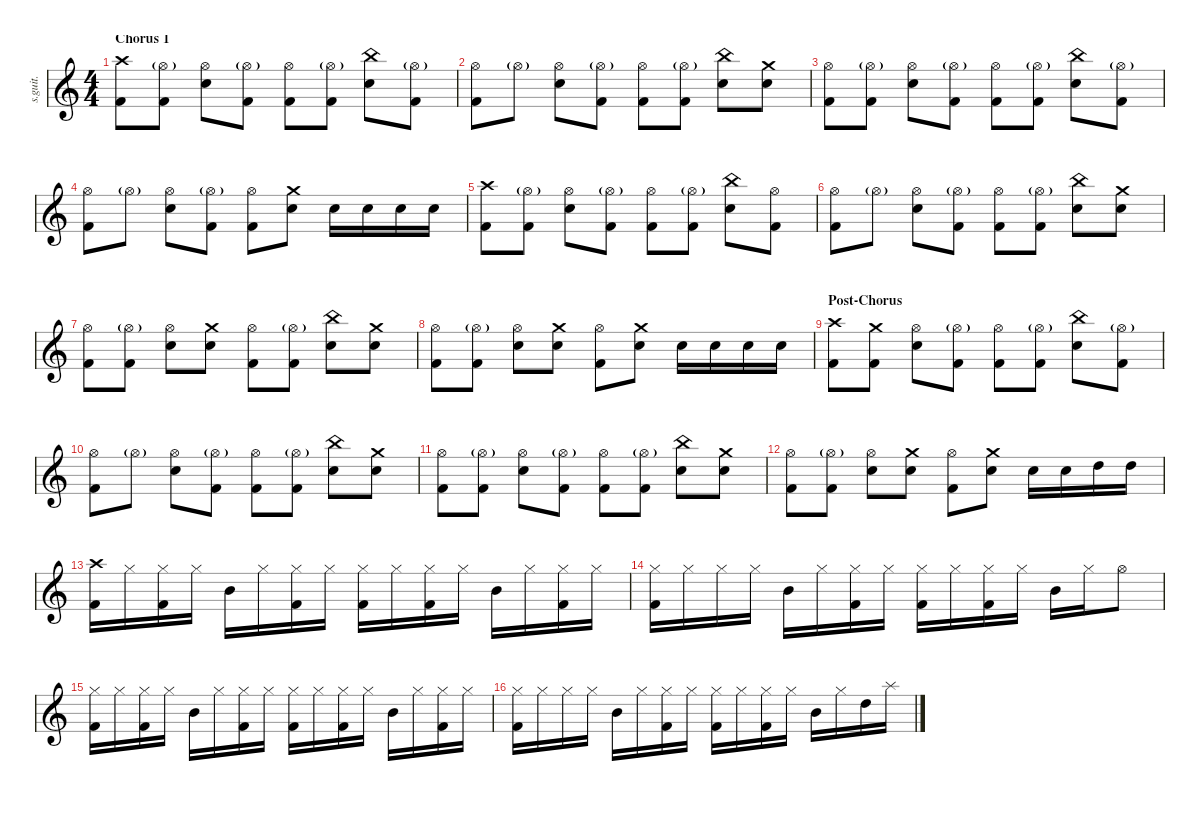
\defaultSystemsLayout 4
\hideDynamics
\bracketExtendMode nobrackets
\track ("Feargal Lawler (Drums)" "s.guit.") {instrument percussion}
\staff {score}
\articulation defaults
\ts (4 4)
\section ("" "Chorus 1")
\tempo (82 hide)
\clef g2
\ks c
("Crash high (hit)" "Kick (hit) 2").8{lyrics (0 "") lyrics (1 "") lyrics (2 "") lyrics (3 "") lyrics (4 "") dy ff} ("Hi-Hat (open)"{g} "Kick (hit) 2").8{lyrics (0 "") lyrics (1 "") lyrics (2 "") lyrics (3 "") lyrics (4 "")} ("Hi-Hat (open)" "Snare (hit) 2").8{lyrics (0 "") lyrics (1 "") lyrics (2 "") lyrics (3 "") lyrics (4 "")} ("Hi-Hat (open)"{g} "Kick (hit) 2").8{lyrics (0 "") lyrics (1 "") lyrics (2 "") lyrics (3 "") lyrics (4 "")} ("Hi-Hat (open)" "Kick (hit) 2").8{lyrics (0 "") lyrics (1 "") lyrics (2 "") lyrics (3 "") lyrics (4 "")} ("Hi-Hat (open)"{g} "Kick (hit) 2").8{lyrics (0 "") lyrics (1 "") lyrics (2 "") lyrics (3 "") lyrics (4 "")} ("Snare (hit) 2" "China (hit)").8{lyrics (0 "") lyrics (1 "") lyrics (2 "") lyrics (3 "") lyrics (4 "")} ("Hi-Hat (open)"{g} "Kick (hit) 2").8{lyrics (0 "") lyrics (1 "") lyrics (2 "") lyrics (3 "") lyrics (4 "")} |
("Hi-Hat (open)" "Kick (hit) 2").8{lyrics (0 "") lyrics (1 "") lyrics (2 "") lyrics (3 "") lyrics (4 "")} "Hi-Hat (open)"{g}.8{lyrics (0 "") lyrics (1 "") lyrics (2 "") lyrics (3 "") lyrics (4 "")} ("Hi-Hat (open)" "Snare (hit) 2").8{lyrics (0 "") lyrics (1 "") lyrics (2 "") lyrics (3 "") lyrics (4 "")} ("Hi-Hat (open)"{g} "Kick (hit) 2").8{lyrics (0 "") lyrics (1 "") lyrics (2 "") lyrics (3 "") lyrics (4 "")} ("Hi-Hat (open)" "Kick (hit) 2").8{lyrics (0 "") lyrics (1 "") lyrics (2 "") lyrics (3 "") lyrics (4 "")} ("Hi-Hat (open)"{g} "Kick (hit) 2").8{lyrics (0 "") lyrics (1 "") lyrics (2 "") lyrics (3 "") lyrics (4 "")} ("China (hit)" "Snare (hit) 2").8{lyrics (0 "") lyrics (1 "") lyrics (2 "") lyrics (3 "") lyrics (4 "")} ("Crash medium (hit)" "Snare (hit) 2").8{lyrics (0 "") lyrics (1 "") lyrics (2 "") lyrics (3 "") lyrics (4 "")} |
("Hi-Hat (open)" "Kick (hit) 2").8{lyrics (0 "") lyrics (1 "") lyrics (2 "") lyrics (3 "") lyrics (4 "")} ("Hi-Hat (open)"{g} "Kick (hit) 2").8{lyrics (0 "") lyrics (1 "") lyrics (2 "") lyrics (3 "") lyrics (4 "")} ("Hi-Hat (open)" "Snare (hit) 2").8{lyrics (0 "") lyrics (1 "") lyrics (2 "") lyrics (3 "") lyrics (4 "")} ("Hi-Hat (open)"{g} "Kick (hit) 2").8{lyrics (0 "") lyrics (1 "") lyrics (2 "") lyrics (3 "") lyrics (4 "")} ("Hi-Hat (open)" "Kick (hit) 2").8{lyrics (0 "") lyrics (1 "") lyrics (2 "") lyrics (3 "") lyrics (4 "")} ("Hi-Hat (open)"{g} "Kick (hit) 2").8{lyrics (0 "") lyrics (1 "") lyrics (2 "") lyrics (3 "") lyrics (4 "")} ("China (hit)" "Snare (hit) 2").8{lyrics (0 "") lyrics (1 "") lyrics (2 "") lyrics (3 "") lyrics (4 "")} ("Hi-Hat (open)"{g} "Kick (hit) 2").8{lyrics (0 "") lyrics (1 "") lyrics (2 "") lyrics (3 "") lyrics (4 "")} |
("Hi-Hat (open)" "Kick (hit) 2").8{lyrics (0 "") lyrics (1 "") lyrics (2 "") lyrics (3 "") lyrics (4 "")} "Hi-Hat (open)"{g}.8{lyrics (0 "") lyrics (1 "") lyrics (2 "") lyrics (3 "") lyrics (4 "")} ("Hi-Hat (open)" "Snare (hit) 2").8{lyrics (0 "") lyrics (1 "") lyrics (2 "") lyrics (3 "") lyrics (4 "")} ("Hi-Hat (open)"{g} "Kick (hit) 2").8{lyrics (0 "") lyrics (1 "") lyrics (2 "") lyrics (3 "") lyrics (4 "")} ("Hi-Hat (open)" "Kick (hit) 2").8{lyrics (0 "") lyrics (1 "") lyrics (2 "") lyrics (3 "") lyrics (4 "")} ("Crash medium (hit)" "Snare (hit) 2").8{lyrics (0 "") lyrics (1 "") lyrics (2 "") lyrics (3 "") lyrics (4 "")} "Snare (hit) 2".16{lyrics (0 "") lyrics (1 "") lyrics (2 "") lyrics (3 "") lyrics (4 "")} "Snare (hit) 2".16{lyrics (0 "") lyrics (1 "") lyrics (2 "") lyrics (3 "") lyrics (4 "")} "Snare (hit) 2".16{lyrics (0 "") lyrics (1 "") lyrics (2 "") lyrics (3 "") lyrics (4 "")} "Snare (hit) 2".16{lyrics (0 "") lyrics (1 "") lyrics (2 "") lyrics (3 "") lyrics (4 "")} |
("Crash high (hit)" "Kick (hit) 2").8{lyrics (0 "") lyrics (1 "") lyrics (2 "") lyrics (3 "") lyrics (4 "")} ("Hi-Hat (open)"{g} "Kick (hit) 2").8{lyrics (0 "") lyrics (1 "") lyrics (2 "") lyrics (3 "") lyrics (4 "")} ("Hi-Hat (open)" "Snare (hit) 2").8{lyrics (0 "") lyrics (1 "") lyrics (2 "") lyrics (3 "") lyrics (4 "")} ("Hi-Hat (open)"{g} "Kick (hit) 2").8{lyrics (0 "") lyrics (1 "") lyrics (2 "") lyrics (3 "") lyrics (4 "")} ("Hi-Hat (open)" "Kick (hit) 2").8{lyrics (0 "") lyrics (1 "") lyrics (2 "") lyrics (3 "") lyrics (4 "")} ("Hi-Hat (open)"{g} "Kick (hit) 2").8{lyrics (0 "") lyrics (1 "") lyrics (2 "") lyrics (3 "") lyrics (4 "")} ("China (hit)" "Snare (hit) 2").8{lyrics (0 "") lyrics (1 "") lyrics (2 "") lyrics (3 "") lyrics (4 "")} ("Hi-Hat (open)" "Kick (hit) 2").8{lyrics (0 "") lyrics (1 "") lyrics (2 "") lyrics (3 "") lyrics (4 "")} |
("Hi-Hat (open)" "Kick (hit) 2").8{lyrics (0 "") lyrics (1 "") lyrics (2 "") lyrics (3 "") lyrics (4 "")} "Hi-Hat (open)"{g}.8{lyrics (0 "") lyrics (1 "") lyrics (2 "") lyrics (3 "") lyrics (4 "")} ("Hi-Hat (open)" "Snare (hit) 2").8{lyrics (0 "") lyrics (1 "") lyrics (2 "") lyrics (3 "") lyrics (4 "")} ("Hi-Hat (open)"{g} "Kick (hit) 2").8{lyrics (0 "") lyrics (1 "") lyrics (2 "") lyrics (3 "") lyrics (4 "")} ("Hi-Hat (open)" "Kick (hit) 2").8{lyrics (0 "") lyrics (1 "") lyrics (2 "") lyrics (3 "") lyrics (4 "")} ("Hi-Hat (open)"{g} "Kick (hit) 2").8{lyrics (0 "") lyrics (1 "") lyrics (2 "") lyrics (3 "") lyrics (4 "")} ("China (hit)" "Snare (hit) 2").8{lyrics (0 "") lyrics (1 "") lyrics (2 "") lyrics (3 "") lyrics (4 "")} ("Crash medium (hit)" "Snare (hit) 2").8{lyrics (0 "") lyrics (1 "") lyrics (2 "") lyrics (3 "") lyrics (4 "")} |
("Hi-Hat (open)" "Kick (hit) 2").8{lyrics (0 "") lyrics (1 "") lyrics (2 "") lyrics (3 "") lyrics (4 "")} ("Hi-Hat (open)"{g} "Kick (hit) 2").8{lyrics (0 "") lyrics (1 "") lyrics (2 "") lyrics (3 "") lyrics (4 "")} ("Hi-Hat (open)" "Snare (hit) 2").8{lyrics (0 "") lyrics (1 "") lyrics (2 "") lyrics (3 "") lyrics (4 "")} ("Crash medium (hit)" "Snare (hit) 2").8{lyrics (0 "") lyrics (1 "") lyrics (2 "") lyrics (3 "") lyrics (4 "")} ("Hi-Hat (open)" "Kick (hit) 2").8{lyrics (0 "") lyrics (1 "") lyrics (2 "") lyrics (3 "") lyrics (4 "")} ("Hi-Hat (open)"{g} "Kick (hit) 2").8{lyrics (0 "") lyrics (1 "") lyrics (2 "") lyrics (3 "") lyrics (4 "")} ("China (hit)" "Snare (hit) 2").8{lyrics (0 "") lyrics (1 "") lyrics (2 "") lyrics (3 "") lyrics (4 "")} ("Crash medium (hit)" "Snare (hit) 2").8{lyrics (0 "") lyrics (1 "") lyrics (2 "") lyrics (3 "") lyrics (4 "")} |
("Hi-Hat (open)" "Kick (hit) 2").8{lyrics (0 "") lyrics (1 "") lyrics (2 "") lyrics (3 "") lyrics (4 "")} ("Hi-Hat (open)"{g} "Kick (hit) 2").8{lyrics (0 "") lyrics (1 "") lyrics (2 "") lyrics (3 "") lyrics (4 "")} ("Hi-Hat (open)" "Snare (hit) 2").8{lyrics (0 "") lyrics (1 "") lyrics (2 "") lyrics (3 "") lyrics (4 "")} ("Crash medium (hit)" "Snare (hit) 2").8{lyrics (0 "") lyrics (1 "") lyrics (2 "") lyrics (3 "") lyrics (4 "")} ("Hi-Hat (open)" "Kick (hit) 2").8{lyrics (0 "") lyrics (1 "") lyrics (2 "") lyrics (3 "") lyrics (4 "")} ("Crash medium (hit)" "Snare (hit) 2").8{lyrics (0 "") lyrics (1 "") lyrics (2 "") lyrics (3 "") lyrics (4 "")} "Snare (hit) 2".16{lyrics (0 "") lyrics (1 "") lyrics (2 "") lyrics (3 "") lyrics (4 "")} "Snare (hit) 2".16{lyrics (0 "") lyrics (1 "") lyrics (2 "") lyrics (3 "") lyrics (4 "")} "Snare (hit) 2".16{lyrics (0 "") lyrics (1 "") lyrics (2 "") lyrics (3 "") lyrics (4 "")} "Snare (hit) 2".16{lyrics (0 "") lyrics (1 "") lyrics (2 "") lyrics (3 "") lyrics (4 "")} |
\section ("" "Post-Chorus")
("Crash high (hit)" "Kick (hit) 2").8{lyrics (0 "") lyrics (1 "") lyrics (2 "") lyrics (3 "") lyrics (4 "")} ("Kick (hit) 2" "Crash medium (hit)").8{lyrics (0 "") lyrics (1 "") lyrics (2 "") lyrics (3 "") lyrics (4 "")} ("Hi-Hat (open)" "Snare (hit) 2").8{lyrics (0 "") lyrics (1 "") lyrics (2 "") lyrics (3 "") lyrics (4 "")} ("Hi-Hat (open)"{g} "Kick (hit) 2").8{lyrics (0 "") lyrics (1 "") lyrics (2 "") lyrics (3 "") lyrics (4 "")} ("Hi-Hat (open)" "Kick (hit) 2").8{lyrics (0 "") lyrics (1 "") lyrics (2 "") lyrics (3 "") lyrics (4 "")} ("Hi-Hat (open)"{g} "Kick (hit) 2").8{lyrics (0 "") lyrics (1 "") lyrics (2 "") lyrics (3 "") lyrics (4 "")} ("China (hit)" "Snare (hit) 2").8{lyrics (0 "") lyrics (1 "") lyrics (2 "") lyrics (3 "") lyrics (4 "")} ("Hi-Hat (open)"{g} "Kick (hit) 2").8{lyrics (0 "") lyrics (1 "") lyrics (2 "") lyrics (3 "") lyrics (4 "")} |
("Hi-Hat (open)" "Kick (hit) 2").8{lyrics (0 "") lyrics (1 "") lyrics (2 "") lyrics (3 "") lyrics (4 "")} "Hi-Hat (open)"{g}.8{lyrics (0 "") lyrics (1 "") lyrics (2 "") lyrics (3 "") lyrics (4 "")} ("Hi-Hat (open)" "Snare (hit) 2").8{lyrics (0 "") lyrics (1 "") lyrics (2 "") lyrics (3 "") lyrics (4 "")} ("Hi-Hat (open)"{g} "Kick (hit) 2").8{lyrics (0 "") lyrics (1 "") lyrics (2 "") lyrics (3 "") lyrics (4 "")} ("Hi-Hat (open)" "Kick (hit) 2").8{lyrics (0 "") lyrics (1 "") lyrics (2 "") lyrics (3 "") lyrics (4 "")} ("Hi-Hat (open)"{g} "Kick (hit) 2").8{lyrics (0 "") lyrics (1 "") lyrics (2 "") lyrics (3 "") lyrics (4 "")} ("China (hit)" "Snare (hit) 2").8{lyrics (0 "") lyrics (1 "") lyrics (2 "") lyrics (3 "") lyrics (4 "")} ("Crash medium (hit)" "Snare (hit) 2").8{lyrics (0 "") lyrics (1 "") lyrics (2 "") lyrics (3 "") lyrics (4 "")} |
("Hi-Hat (open)" "Kick (hit) 2").8{lyrics (0 "") lyrics (1 "") lyrics (2 "") lyrics (3 "") lyrics (4 "")} ("Hi-Hat (open)"{g} "Kick (hit) 2").8{lyrics (0 "") lyrics (1 "") lyrics (2 "") lyrics (3 "") lyrics (4 "")} ("Hi-Hat (open)" "Snare (hit) 2").8{lyrics (0 "") lyrics (1 "") lyrics (2 "") lyrics (3 "") lyrics (4 "")} ("Hi-Hat (open)"{g} "Kick (hit) 2").8{lyrics (0 "") lyrics (1 "") lyrics (2 "") lyrics (3 "") lyrics (4 "")} ("Hi-Hat (open)" "Kick (hit) 2").8{lyrics (0 "") lyrics (1 "") lyrics (2 "") lyrics (3 "") lyrics (4 "")} ("Hi-Hat (open)"{g} "Kick (hit) 2").8{lyrics (0 "") lyrics (1 "") lyrics (2 "") lyrics (3 "") lyrics (4 "")} ("China (hit)" "Snare (hit) 2").8{lyrics (0 "") lyrics (1 "") lyrics (2 "") lyrics (3 "") lyrics (4 "")} ("Crash medium (hit)" "Snare (hit) 2").8{lyrics (0 "") lyrics (1 "") lyrics (2 "") lyrics (3 "") lyrics (4 "")} |
("Hi-Hat (open)" "Kick (hit) 2").8{lyrics (0 "") lyrics (1 "") lyrics (2 "") lyrics (3 "") lyrics (4 "")} ("Hi-Hat (open)"{g} "Kick (hit) 2").8{lyrics (0 "") lyrics (1 "") lyrics (2 "") lyrics (3 "") lyrics (4 "")} ("Hi-Hat (open)" "Snare (hit) 2").8{lyrics (0 "") lyrics (1 "") lyrics (2 "") lyrics (3 "") lyrics (4 "")} ("Crash medium (hit)" "Snare (hit) 2").8{lyrics (0 "") lyrics (1 "") lyrics (2 "") lyrics (3 "") lyrics (4 "")} ("Hi-Hat (open)" "Kick (hit) 2").8{lyrics (0 "") lyrics (1 "") lyrics (2 "") lyrics (3 "") lyrics (4 "")} ("Crash medium (hit)" "Snare (hit) 2").8{lyrics (0 "") lyrics (1 "") lyrics (2 "") lyrics (3 "") lyrics (4 "")} "Snare (hit) 2".16{lyrics (0 "") lyrics (1 "") lyrics (2 "") lyrics (3 "") lyrics (4 "")} "Snare (hit) 2".16{lyrics (0 "") lyrics (1 "") lyrics (2 "") lyrics (3 "") lyrics (4 "")} "High Tom (hit)".16{lyrics (0 "") lyrics (1 "") lyrics (2 "") lyrics (3 "") lyrics (4 "")} "High Tom (hit)".16{lyrics (0 "") lyrics (1 "") lyrics (2 "") lyrics (3 "") lyrics (4 "")} |
("Crash high (hit)" "Kick (hit) 2").16{lyrics (0 "") lyrics (1 "") lyrics (2 "") lyrics (3 "") lyrics (4 "")} "Hi-Hat (closed)".16{lyrics (0 "") lyrics (1 "") lyrics (2 "") lyrics (3 "") lyrics (4 "")} ("Hi-Hat (closed)" "Kick (hit) 2").16{lyrics (0 "") lyrics (1 "") lyrics (2 "") lyrics (3 "") lyrics (4 "")} "Hi-Hat (closed)".16{lyrics (0 "") lyrics (1 "") lyrics (2 "") lyrics (3 "") lyrics (4 "")} "Mid Tom (hit)".16{lyrics (0 "") lyrics (1 "") lyrics (2 "") lyrics (3 "") lyrics (4 "")} "Hi-Hat (closed)".16{lyrics (0 "") lyrics (1 "") lyrics (2 "") lyrics (3 "") lyrics (4 "")} ("Kick (hit) 2" "Hi-Hat (closed)").16{lyrics (0 "") lyrics (1 "") lyrics (2 "") lyrics (3 "") lyrics (4 "")} "Hi-Hat (closed)".16{lyrics (0 "") lyrics (1 "") lyrics (2 "") lyrics (3 "") lyrics (4 "")} ("Kick (hit) 2" "Hi-Hat (closed)").16{lyrics (0 "") lyrics (1 "") lyrics (2 "") lyrics (3 "") lyrics (4 "")} "Hi-Hat (closed)".16{lyrics (0 "") lyrics (1 "") lyrics (2 "") lyrics (3 "") lyrics (4 "")} ("Kick (hit) 2" "Hi-Hat (closed)").16{lyrics (0 "") lyrics (1 "") lyrics (2 "") lyrics (3 "") lyrics (4 "")} "Hi-Hat (closed)".16{lyrics (0 "") lyrics (1 "") lyrics (2 "") lyrics (3 "") lyrics (4 "")} "Mid Tom (hit)".16{lyrics (0 "") lyrics (1 "") lyrics (2 "") lyrics (3 "") lyrics (4 "")} "Hi-Hat (closed)".16{lyrics (0 "") lyrics (1 "") lyrics (2 "") lyrics (3 "") lyrics (4 "")} ("Hi-Hat (closed)" "Kick (hit) 2").16{lyrics (0 "") lyrics (1 "") lyrics (2 "") lyrics (3 "") lyrics (4 "")} "Hi-Hat (closed)".16{lyrics (0 "") lyrics (1 "") lyrics (2 "") lyrics (3 "") lyrics (4 "")} |
("Hi-Hat (closed)" "Kick (hit) 2").16{lyrics (0 "") lyrics (1 "") lyrics (2 "") lyrics (3 "") lyrics (4 "")} "Hi-Hat (closed)".16{lyrics (0 "") lyrics (1 "") lyrics (2 "") lyrics (3 "") lyrics (4 "")} "Hi-Hat (closed)".16{lyrics (0 "") lyrics (1 "") lyrics (2 "") lyrics (3 "") lyrics (4 "")} "Hi-Hat (closed)".16{lyrics (0 "") lyrics (1 "") lyrics (2 "") lyrics (3 "") lyrics (4 "")} "Mid Tom (hit)".16{lyrics (0 "") lyrics (1 "") lyrics (2 "") lyrics (3 "") lyrics (4 "")} "Hi-Hat (closed)".16{lyrics (0 "") lyrics (1 "") lyrics (2 "") lyrics (3 "") lyrics (4 "")} ("Kick (hit) 2" "Hi-Hat (closed)").16{lyrics (0 "") lyrics (1 "") lyrics (2 "") lyrics (3 "") lyrics (4 "")} "Hi-Hat (closed)".16{lyrics (0 "") lyrics (1 "") lyrics (2 "") lyrics (3 "") lyrics (4 "")} ("Kick (hit) 2" "Hi-Hat (closed)").16{lyrics (0 "") lyrics (1 "") lyrics (2 "") lyrics (3 "") lyrics (4 "")} "Hi-Hat (closed)".16{lyrics (0 "") lyrics (1 "") lyrics (2 "") lyrics (3 "") lyrics (4 "")} ("Kick (hit) 2" "Hi-Hat (closed)").16{lyrics (0 "") lyrics (1 "") lyrics (2 "") lyrics (3 "") lyrics (4 "")} "Hi-Hat (closed)".16{lyrics (0 "") lyrics (1 "") lyrics (2 "") lyrics (3 "") lyrics (4 "")} "Mid Tom (hit)".16{lyrics (0 "") lyrics (1 "") lyrics (2 "") lyrics (3 "") lyrics (4 "")} "Hi-Hat (closed)".16{lyrics (0 "") lyrics (1 "") lyrics (2 "") lyrics (3 "") lyrics (4 "")} "Hi-Hat (open)".8{lyrics (0 "") lyrics (1 "") lyrics (2 "") lyrics (3 "") lyrics (4 "")} |
("Hi-Hat (closed)" "Kick (hit) 2").16{lyrics (0 "") lyrics (1 "") lyrics (2 "") lyrics (3 "") lyrics (4 "")} "Hi-Hat (closed)".16{lyrics (0 "") lyrics (1 "") lyrics (2 "") lyrics (3 "") lyrics (4 "")} ("Hi-Hat (closed)" "Kick (hit) 2").16{lyrics (0 "") lyrics (1 "") lyrics (2 "") lyrics (3 "") lyrics (4 "")} "Hi-Hat (closed)".16{lyrics (0 "") lyrics (1 "") lyrics (2 "") lyrics (3 "") lyrics (4 "")} "Mid Tom (hit)".16{lyrics (0 "") lyrics (1 "") lyrics (2 "") lyrics (3 "") lyrics (4 "")} "Hi-Hat (closed)".16{lyrics (0 "") lyrics (1 "") lyrics (2 "") lyrics (3 "") lyrics (4 "")} ("Kick (hit) 2" "Hi-Hat (closed)").16{lyrics (0 "") lyrics (1 "") lyrics (2 "") lyrics (3 "") lyrics (4 "")} "Hi-Hat (closed)".16{lyrics (0 "") lyrics (1 "") lyrics (2 "") lyrics (3 "") lyrics (4 "")} ("Kick (hit) 2" "Hi-Hat (closed)").16{lyrics (0 "") lyrics (1 "") lyrics (2 "") lyrics (3 "") lyrics (4 "")} "Hi-Hat (closed)".16{lyrics (0 "") lyrics (1 "") lyrics (2 "") lyrics (3 "") lyrics (4 "")} ("Kick (hit) 2" "Hi-Hat (closed)").16{lyrics (0 "") lyrics (1 "") lyrics (2 "") lyrics (3 "") lyrics (4 "")} "Hi-Hat (closed)".16{lyrics (0 "") lyrics (1 "") lyrics (2 "") lyrics (3 "") lyrics (4 "")} "Mid Tom (hit)".16{lyrics (0 "") lyrics (1 "") lyrics (2 "") lyrics (3 "") lyrics (4 "")} "Hi-Hat (closed)".16{lyrics (0 "") lyrics (1 "") lyrics (2 "") lyrics (3 "") lyrics (4 "")} ("Hi-Hat (closed)" "Kick (hit) 2").16{lyrics (0 "") lyrics (1 "") lyrics (2 "") lyrics (3 "") lyrics (4 "")} "Hi-Hat (closed)".16{lyrics (0 "") lyrics (1 "") lyrics (2 "") lyrics (3 "") lyrics (4 "")} |
("Hi-Hat (closed)" "Kick (hit) 2").16{lyrics (0 "") lyrics (1 "") lyrics (2 "") lyrics (3 "") lyrics (4 "")} "Hi-Hat (closed)".16{lyrics (0 "") lyrics (1 "") lyrics (2 "") lyrics (3 "") lyrics (4 "")} "Hi-Hat (closed)".16{lyrics (0 "") lyrics (1 "") lyrics (2 "") lyrics (3 "") lyrics (4 "")} "Hi-Hat (closed)".16{lyrics (0 "") lyrics (1 "") lyrics (2 "") lyrics (3 "") lyrics (4 "")} "Mid Tom (hit)".16{lyrics (0 "") lyrics (1 "") lyrics (2 "") lyrics (3 "") lyrics (4 "")} "Hi-Hat (closed)".16{lyrics (0 "") lyrics (1 "") lyrics (2 "") lyrics (3 "") lyrics (4 "")} ("Kick (hit) 2" "Hi-Hat (closed)").16{lyrics (0 "") lyrics (1 "") lyrics (2 "") lyrics (3 "") lyrics (4 "")} "Hi-Hat (closed)".16{lyrics (0 "") lyrics (1 "") lyrics (2 "") lyrics (3 "") lyrics (4 "")} ("Kick (hit) 2" "Hi-Hat (closed)").16{lyrics (0 "") lyrics (1 "") lyrics (2 "") lyrics (3 "") lyrics (4 "")} "Hi-Hat (closed)".16{lyrics (0 "") lyrics (1 "") lyrics (2 "") lyrics (3 "") lyrics (4 "")} ("Kick (hit) 2" "Hi-Hat (closed)").16{lyrics (0 "") lyrics (1 "") lyrics (2 "") lyrics (3 "") lyrics (4 "")} "Hi-Hat (closed)".16{lyrics (0 "") lyrics (1 "") lyrics (2 "") lyrics (3 "") lyrics (4 "")} "Mid Tom (hit)".16{lyrics (0 "") lyrics (1 "") lyrics (2 "") lyrics (3 "") lyrics (4 "")} "Hi-Hat (closed)".16{lyrics (0 "") lyrics (1 "") lyrics (2 "") lyrics (3 "") lyrics (4 "")} "High Tom (hit)".16{lyrics (0 "") lyrics (1 "") lyrics (2 "") lyrics (3 "") lyrics (4 "")} "Splash (hit)".16{lyrics (0 "") lyrics (1 "") lyrics (2 "") lyrics (3 "") lyrics (4 "")}
